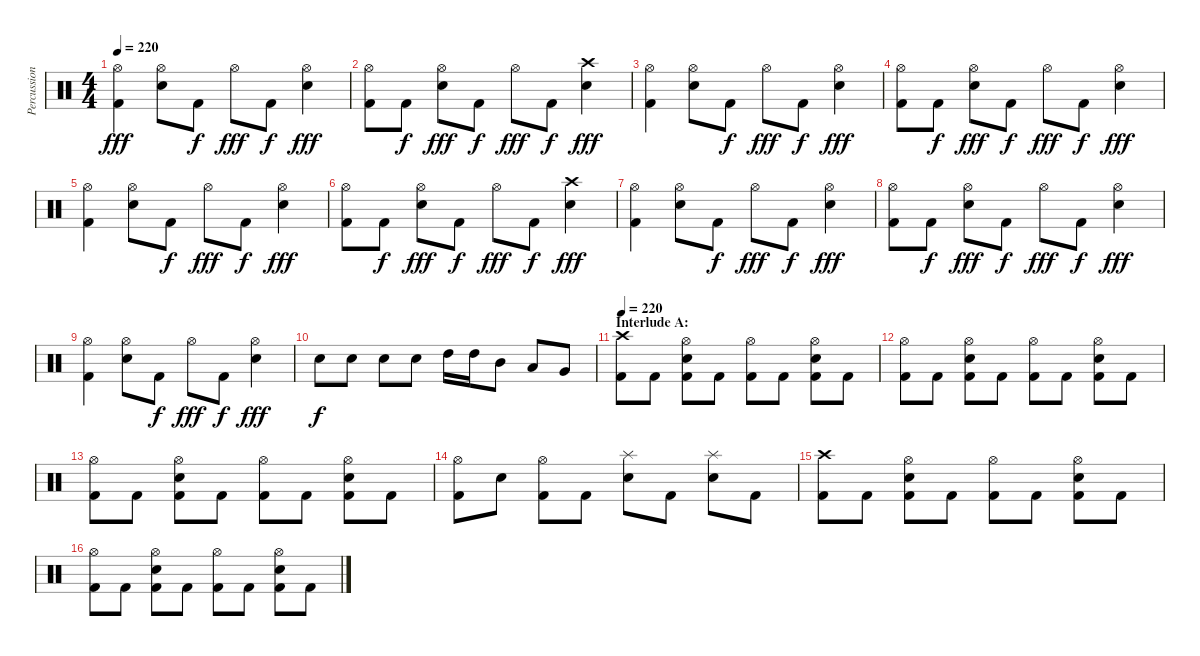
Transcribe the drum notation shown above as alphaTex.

\track ("Percussion" "Percussion") {instrument percussion}
\staff {score}
\articulation defaults
\ts (4 4)
\tempo 220
\clef neutral
\ks c
("Hi-Hat (open)" "Kick (hit) 2").4{dy fff} ("Hi-Hat (open)" "Electric Snare (hit)").8 "Kick (hit) 2".8{dy f} "Hi-Hat (open)".8{dy fff} "Kick (hit) 2".8{dy f} ("Hi-Hat (open)" "Electric Snare (hit)").4{dy fff} |
("Hi-Hat (open)" "Kick (hit) 2").8 "Kick (hit) 2".8{dy f} ("Hi-Hat (open)" "Electric Snare (hit)").8{dy fff} "Kick (hit) 2".8{dy f} "Hi-Hat (open)".8{dy fff} "Kick (hit) 2".8{dy f} ("Crash high (hit)" "Electric Snare (hit)").4{dy fff} |
("Hi-Hat (open)" "Kick (hit) 2").4 ("Hi-Hat (open)" "Electric Snare (hit)").8 "Kick (hit) 2".8{dy f} "Hi-Hat (open)".8{dy fff} "Kick (hit) 2".8{dy f} ("Hi-Hat (open)" "Electric Snare (hit)").4{dy fff} |
("Hi-Hat (open)" "Kick (hit) 2").8 "Kick (hit) 2".8{dy f} ("Hi-Hat (open)" "Electric Snare (hit)").8{dy fff} "Kick (hit) 2".8{dy f} "Hi-Hat (open)".8{dy fff} "Kick (hit) 2".8{dy f} ("Hi-Hat (open)" "Electric Snare (hit)").4{dy fff} |
("Hi-Hat (open)" "Kick (hit) 2").4 ("Hi-Hat (open)" "Electric Snare (hit)").8 "Kick (hit) 2".8{dy f} "Hi-Hat (open)".8{dy fff} "Kick (hit) 2".8{dy f} ("Hi-Hat (open)" "Electric Snare (hit)").4{dy fff} |
("Hi-Hat (open)" "Kick (hit) 2").8 "Kick (hit) 2".8{dy f} ("Hi-Hat (open)" "Electric Snare (hit)").8{dy fff} "Kick (hit) 2".8{dy f} "Hi-Hat (open)".8{dy fff} "Kick (hit) 2".8{dy f} ("Crash high (hit)" "Electric Snare (hit)").4{dy fff} |
("Hi-Hat (open)" "Kick (hit) 2").4 ("Hi-Hat (open)" "Electric Snare (hit)").8 "Kick (hit) 2".8{dy f} "Hi-Hat (open)".8{dy fff} "Kick (hit) 2".8{dy f} ("Hi-Hat (open)" "Electric Snare (hit)").4{dy fff} |
("Hi-Hat (open)" "Kick (hit) 2").8 "Kick (hit) 2".8{dy f} ("Hi-Hat (open)" "Electric Snare (hit)").8{dy fff} "Kick (hit) 2".8{dy f} "Hi-Hat (open)".8{dy fff} "Kick (hit) 2".8{dy f} ("Hi-Hat (open)" "Electric Snare (hit)").4{dy fff} |
("Hi-Hat (open)" "Kick (hit) 2").4 ("Hi-Hat (open)" "Electric Snare (hit)").8 "Kick (hit) 2".8{dy f} "Hi-Hat (open)".8{dy fff} "Kick (hit) 2".8{dy f} ("Hi-Hat (open)" "Electric Snare (hit)").4{dy fff} |
"Electric Snare (hit)".8{dy f} "Electric Snare (hit)".8 "Electric Snare (hit)".8 "Electric Snare (hit)".8 "High Tom (hit)".16 "High Tom (hit)".16 "Mid Tom (hit)".8 "Low Tom (hit)".8 "Very Low Tom (hit)".8 |
\section ("" "Interlude A:")
\tempo 220
("Crash high (hit)" "Kick (hit) 2").8 "Kick (hit) 2".8 ("Hi-Hat (open)" "Electric Snare (hit)" "Kick (hit) 2").8 "Kick (hit) 2".8 ("Hi-Hat (open)" "Kick (hit) 2").8 "Kick (hit) 2".8 ("Hi-Hat (open)" "Electric Snare (hit)" "Kick (hit) 2").8 "Kick (hit) 2".8 |
("Hi-Hat (open)" "Kick (hit) 2").8 "Kick (hit) 2".8 ("Hi-Hat (open)" "Electric Snare (hit)" "Kick (hit) 2").8 "Kick (hit) 2".8 ("Hi-Hat (open)" "Kick (hit) 2").8 "Kick (hit) 2".8 ("Hi-Hat (open)" "Electric Snare (hit)" "Kick (hit) 2").8 "Kick (hit) 2".8 |
("Hi-Hat (open)" "Kick (hit) 2").8 "Kick (hit) 2".8 ("Hi-Hat (open)" "Electric Snare (hit)" "Kick (hit) 2").8 "Kick (hit) 2".8 ("Hi-Hat (open)" "Kick (hit) 2").8 "Kick (hit) 2".8 ("Hi-Hat (open)" "Electric Snare (hit)" "Kick (hit) 2").8 "Kick (hit) 2".8 |
("Hi-Hat (open)" "Kick (hit) 2").8 "Electric Snare (hit)".8 ("Hi-Hat (open)" "Kick (hit) 2").8 "Kick (hit) 2".8 ("Splash (hit)" "Electric Snare (hit)").8 "Kick (hit) 2".8 ("Splash (hit)" "Electric Snare (hit)").8 "Kick (hit) 2".8 |
("Crash high (hit)" "Kick (hit) 2").8 "Kick (hit) 2".8 ("Hi-Hat (open)" "Electric Snare (hit)" "Kick (hit) 2").8 "Kick (hit) 2".8 ("Hi-Hat (open)" "Kick (hit) 2").8 "Kick (hit) 2".8 ("Hi-Hat (open)" "Electric Snare (hit)" "Kick (hit) 2").8 "Kick (hit) 2".8 |
("Hi-Hat (open)" "Kick (hit) 2").8 "Kick (hit) 2".8 ("Hi-Hat (open)" "Electric Snare (hit)" "Kick (hit) 2").8 "Kick (hit) 2".8 ("Hi-Hat (open)" "Kick (hit) 2").8 "Kick (hit) 2".8 ("Hi-Hat (open)" "Electric Snare (hit)" "Kick (hit) 2").8 "Kick (hit) 2".8
